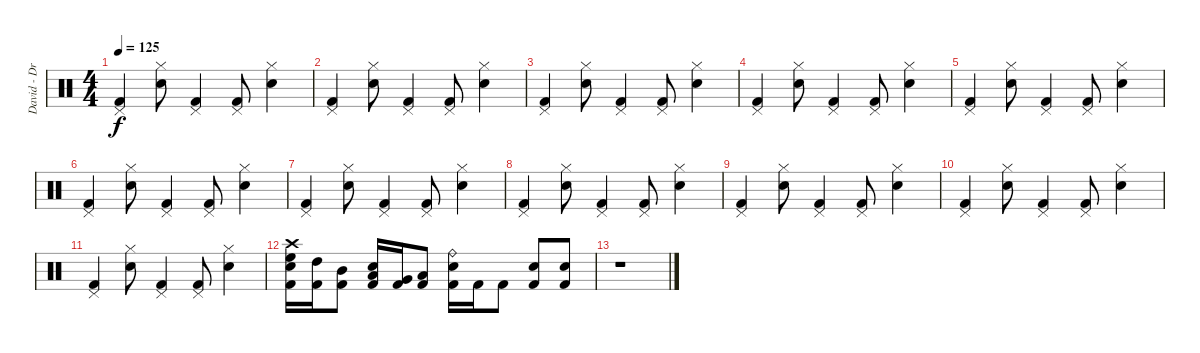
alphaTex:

\track ("David - Drums" "David - Dr") {instrument percussion}
\staff {score}
\articulation defaults
\ts (4 4)
\tempo 125
\clef neutral
\ks c
("Kick (hit) 2" "Pedal Hi-Hat (hit)").4{dy f} ("Snare (hit) 2" "Hi-Hat (closed)").8 ("Kick (hit) 2" "Pedal Hi-Hat (hit)").4 ("Kick (hit) 2" "Pedal Hi-Hat (hit)").8 ("Snare (hit) 2" "Hi-Hat (closed)").4 |
("Kick (hit) 2" "Pedal Hi-Hat (hit)").4 ("Snare (hit) 2" "Hi-Hat (closed)").8 ("Kick (hit) 2" "Pedal Hi-Hat (hit)").4 ("Kick (hit) 2" "Pedal Hi-Hat (hit)").8 ("Snare (hit) 2" "Hi-Hat (closed)").4 |
("Kick (hit) 2" "Pedal Hi-Hat (hit)").4 ("Snare (hit) 2" "Hi-Hat (closed)").8 ("Kick (hit) 2" "Pedal Hi-Hat (hit)").4 ("Kick (hit) 2" "Pedal Hi-Hat (hit)").8 ("Snare (hit) 2" "Hi-Hat (closed)").4 |
("Kick (hit) 2" "Pedal Hi-Hat (hit)").4 ("Snare (hit) 2" "Hi-Hat (closed)").8 ("Kick (hit) 2" "Pedal Hi-Hat (hit)").4 ("Kick (hit) 2" "Pedal Hi-Hat (hit)").8 ("Snare (hit) 2" "Hi-Hat (closed)").4 |
("Kick (hit) 2" "Pedal Hi-Hat (hit)").4 ("Snare (hit) 2" "Hi-Hat (closed)").8 ("Kick (hit) 2" "Pedal Hi-Hat (hit)").4 ("Kick (hit) 2" "Pedal Hi-Hat (hit)").8 ("Snare (hit) 2" "Hi-Hat (closed)").4 |
("Kick (hit) 2" "Pedal Hi-Hat (hit)").4 ("Snare (hit) 2" "Hi-Hat (closed)").8 ("Kick (hit) 2" "Pedal Hi-Hat (hit)").4 ("Kick (hit) 2" "Pedal Hi-Hat (hit)").8 ("Snare (hit) 2" "Hi-Hat (closed)").4 |
("Kick (hit) 2" "Pedal Hi-Hat (hit)").4 ("Snare (hit) 2" "Hi-Hat (closed)").8 ("Kick (hit) 2" "Pedal Hi-Hat (hit)").4 ("Kick (hit) 2" "Pedal Hi-Hat (hit)").8 ("Snare (hit) 2" "Hi-Hat (closed)").4 |
("Kick (hit) 2" "Pedal Hi-Hat (hit)").4 ("Snare (hit) 2" "Hi-Hat (closed)").8 ("Kick (hit) 2" "Pedal Hi-Hat (hit)").4 ("Kick (hit) 2" "Pedal Hi-Hat (hit)").8 ("Snare (hit) 2" "Hi-Hat (closed)").4 |
("Kick (hit) 2" "Pedal Hi-Hat (hit)").4 ("Snare (hit) 2" "Hi-Hat (closed)").8 ("Kick (hit) 2" "Pedal Hi-Hat (hit)").4 ("Kick (hit) 2" "Pedal Hi-Hat (hit)").8 ("Snare (hit) 2" "Hi-Hat (closed)").4 |
("Kick (hit) 2" "Pedal Hi-Hat (hit)").4 ("Snare (hit) 2" "Hi-Hat (closed)").8 ("Kick (hit) 2" "Pedal Hi-Hat (hit)").4 ("Kick (hit) 2" "Pedal Hi-Hat (hit)").8 ("Snare (hit) 2" "Hi-Hat (closed)").4 |
("Kick (hit) 2" "Pedal Hi-Hat (hit)").4 ("Snare (hit) 2" "Hi-Hat (closed)").8 ("Kick (hit) 2" "Pedal Hi-Hat (hit)").4 ("Kick (hit) 2" "Pedal Hi-Hat (hit)").8 ("Snare (hit) 2" "Hi-Hat (closed)").4 |
("Kick (hit) 2" "Electric Snare (hit)" "Crash high (hit)" "High Floor Tom (hit)").16 ("Kick (hit) 2" "High Tom (hit)").16 ("Kick (hit) 2" "Mid Tom (hit)").8 ("Kick (hit) 2" "Electric Snare (hit)" "Low Tom (hit)").16 ("Kick (hit) 2" "Very Low Tom (hit)").16 ("Kick (hit) 2" "Low Floor Tom (hit)").8 ("Kick (hit) 2" "Electric Snare (hit)" "Ride (bell)").16 "Kick (hit) 2".16 "Kick (hit) 2".8 ("Kick (hit) 2" "Electric Snare (hit)").8 ("Kick (hit) 2" "Electric Snare (hit)").8 |
r.1
